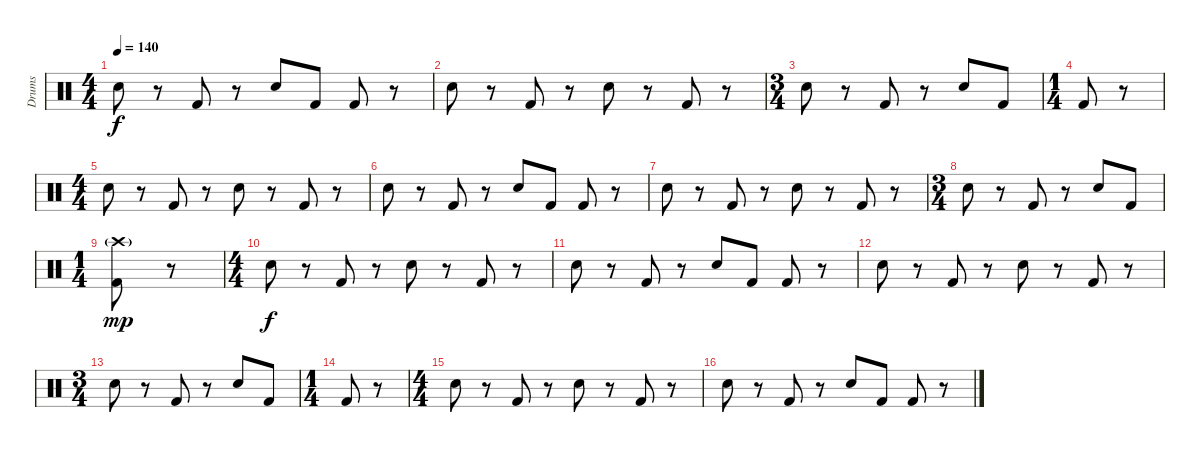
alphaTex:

\track ("Drums" "Drums") {instrument percussion}
\staff {score}
\articulation defaults
\ts (4 4)
\tempo 140
\clef neutral
\ks c "Electric Snare (hit)".8{dy f}
r.8 "Kick (hit) 2".8 r.8 "Electric Snare (hit)".8 "Kick (hit) 2".8 "Kick (hit) 2".8 r.8 |
"Electric Snare (hit)".8 r.8 "Kick (hit) 2".8 r.8 "Electric Snare (hit)".8 r.8 "Kick (hit) 2".8 r.8 |
\ts (3 4)
"Electric Snare (hit)".8 r.8 "Kick (hit) 2".8 r.8 "Electric Snare (hit)".8 "Kick (hit) 2".8 |
\ts (1 4)
"Kick (hit) 2".8 r.8 |
\ts (4 4)
"Electric Snare (hit)".8 r.8 "Kick (hit) 2".8 r.8 "Electric Snare (hit)".8 r.8 "Kick (hit) 2".8 r.8 |
"Electric Snare (hit)".8 r.8 "Kick (hit) 2".8 r.8 "Electric Snare (hit)".8 "Kick (hit) 2".8 "Kick (hit) 2".8 r.8 |
"Electric Snare (hit)".8 r.8 "Kick (hit) 2".8 r.8 "Electric Snare (hit)".8 r.8 "Kick (hit) 2".8 r.8 |
\ts (3 4)
"Electric Snare (hit)".8 r.8 "Kick (hit) 2".8 r.8 "Electric Snare (hit)".8 "Kick (hit) 2".8 |
\ts (1 4)
("Crash high (hit)"{g} "Kick (hit) 2").8{dy mp} r.8 |
\ts (4 4)
"Electric Snare (hit)".8{dy f} r.8 "Kick (hit) 2".8 r.8 "Electric Snare (hit)".8 r.8 "Kick (hit) 2".8 r.8 |
"Electric Snare (hit)".8 r.8 "Kick (hit) 2".8 r.8 "Electric Snare (hit)".8 "Kick (hit) 2".8 "Kick (hit) 2".8 r.8 |
"Electric Snare (hit)".8 r.8 "Kick (hit) 2".8 r.8 "Electric Snare (hit)".8 r.8 "Kick (hit) 2".8 r.8 |
\ts (3 4)
"Electric Snare (hit)".8 r.8 "Kick (hit) 2".8 r.8 "Electric Snare (hit)".8 "Kick (hit) 2".8 |
\ts (1 4)
"Kick (hit) 2".8 r.8 |
\ts (4 4)
"Electric Snare (hit)".8 r.8 "Kick (hit) 2".8 r.8 "Electric Snare (hit)".8 r.8 "Kick (hit) 2".8 r.8 |
"Electric Snare (hit)".8 r.8 "Kick (hit) 2".8 r.8 "Electric Snare (hit)".8 "Kick (hit) 2".8 "Kick (hit) 2".8 r.8
